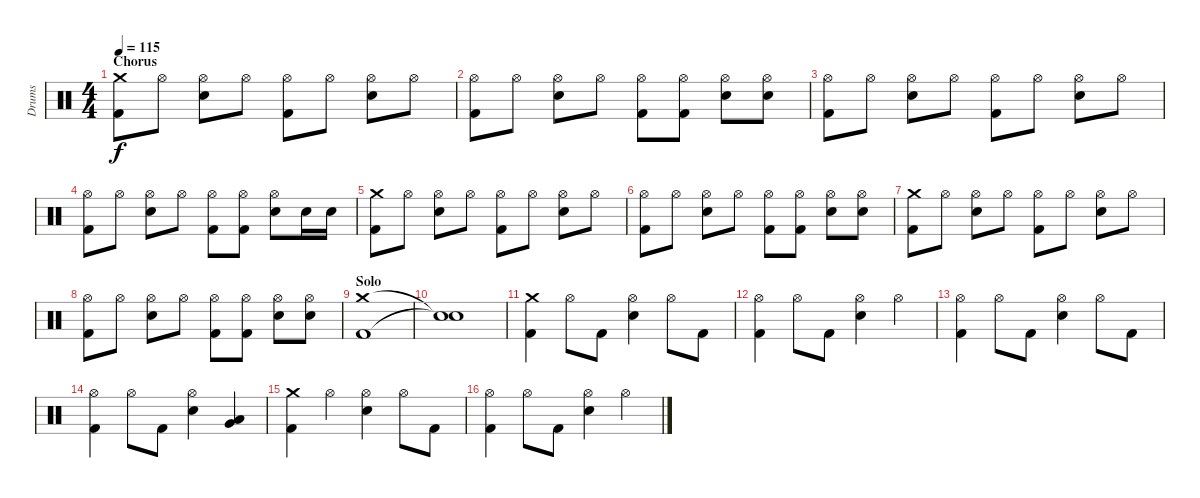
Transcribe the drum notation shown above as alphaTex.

\track ("Drums" "Drums") {instrument percussion}
\staff {score}
\articulation defaults
\ts (4 4)
\section ("" "Chorus")
\tempo 115
\clef neutral
\ks c
("Crash medium (hit)" "Kick (hit) 2").8{dy f} "Hi-Hat (open)".8 ("Hi-Hat (open)" "Electric Snare (hit)").8 "Hi-Hat (open)".8 ("Hi-Hat (open)" "Kick (hit) 2").8 "Hi-Hat (open)".8 ("Hi-Hat (open)" "Electric Snare (hit)").8 "Hi-Hat (open)".8 |
("Hi-Hat (open)" "Kick (hit) 2").8 "Hi-Hat (open)".8 ("Hi-Hat (open)" "Electric Snare (hit)").8 "Hi-Hat (open)".8 ("Hi-Hat (open)" "Kick (hit) 2").8 ("Hi-Hat (open)" "Kick (hit) 2").8 ("Hi-Hat (open)" "Electric Snare (hit)").8 ("Hi-Hat (open)" "Electric Snare (hit)").8 |
("Hi-Hat (open)" "Kick (hit) 2").8 "Hi-Hat (open)".8 ("Hi-Hat (open)" "Electric Snare (hit)").8 "Hi-Hat (open)".8 ("Hi-Hat (open)" "Kick (hit) 2").8 "Hi-Hat (open)".8 ("Hi-Hat (open)" "Electric Snare (hit)").8 "Hi-Hat (open)".8 |
("Hi-Hat (open)" "Kick (hit) 2").8 "Hi-Hat (open)".8 ("Hi-Hat (open)" "Electric Snare (hit)").8 "Hi-Hat (open)".8 ("Hi-Hat (open)" "Kick (hit) 2").8 ("Hi-Hat (open)" "Kick (hit) 2").8 ("Hi-Hat (open)" "Electric Snare (hit)").8 "Electric Snare (hit)".16 "Electric Snare (hit)".16 |
("Crash medium (hit)" "Kick (hit) 2").8 "Hi-Hat (open)".8 ("Hi-Hat (open)" "Electric Snare (hit)").8 "Hi-Hat (open)".8 ("Hi-Hat (open)" "Kick (hit) 2").8 "Hi-Hat (open)".8 ("Hi-Hat (open)" "Electric Snare (hit)").8 "Hi-Hat (open)".8 |
("Hi-Hat (open)" "Kick (hit) 2").8 "Hi-Hat (open)".8 ("Hi-Hat (open)" "Electric Snare (hit)").8 "Hi-Hat (open)".8 ("Hi-Hat (open)" "Kick (hit) 2").8 ("Hi-Hat (open)" "Kick (hit) 2").8 ("Hi-Hat (open)" "Electric Snare (hit)").8 ("Hi-Hat (open)" "Electric Snare (hit)").8 |
("Crash medium (hit)" "Kick (hit) 2").8 "Hi-Hat (open)".8 ("Hi-Hat (open)" "Electric Snare (hit)").8 "Hi-Hat (open)".8 ("Hi-Hat (open)" "Kick (hit) 2").8 "Hi-Hat (open)".8 ("Hi-Hat (open)" "Electric Snare (hit)").8 "Hi-Hat (open)".8 |
("Hi-Hat (open)" "Kick (hit) 2").8 "Hi-Hat (open)".8 ("Hi-Hat (open)" "Electric Snare (hit)").8 "Hi-Hat (open)".8 ("Hi-Hat (open)" "Kick (hit) 2").8 ("Hi-Hat (open)" "Kick (hit) 2").8 ("Hi-Hat (open)" "Electric Snare (hit)").8 ("Hi-Hat (open)" "Electric Snare (hit)").8 |
\section ("" "Solo")
("Crash medium (hit)" "Kick (hit) 2").1 |
("Snare (hit)"{t} "Snare (hit)"{t}).1 |
("Crash medium (hit)" "Kick (hit) 2").4 "Hi-Hat (open)".8 "Kick (hit) 2".8 ("Hi-Hat (open)" "Electric Snare (hit)").4 "Hi-Hat (open)".8 "Kick (hit) 2".8 |
("Hi-Hat (open)" "Kick (hit) 2").4 "Hi-Hat (open)".8 "Kick (hit) 2".8 ("Hi-Hat (open)" "Electric Snare (hit)").4 "Hi-Hat (open)".4 |
("Hi-Hat (open)" "Kick (hit) 2").4 "Hi-Hat (open)".8 "Kick (hit) 2".8 ("Hi-Hat (open)" "Electric Snare (hit)").4 "Hi-Hat (open)".8 "Kick (hit) 2".8 |
("Hi-Hat (open)" "Kick (hit) 2").4 "Hi-Hat (open)".8 "Kick (hit) 2".8 ("Hi-Hat (open)" "Electric Snare (hit)").4 ("Low Tom (hit)" "Very Low Tom (hit)").4 |
("Crash medium (hit)" "Kick (hit) 2").4 "Hi-Hat (open)".4 ("Hi-Hat (open)" "Electric Snare (hit)").4 "Hi-Hat (open)".8 "Kick (hit) 2".8 |
("Hi-Hat (open)" "Kick (hit) 2").4 "Hi-Hat (open)".8 "Kick (hit) 2".8 ("Hi-Hat (open)" "Electric Snare (hit)").4 "Hi-Hat (open)".4
